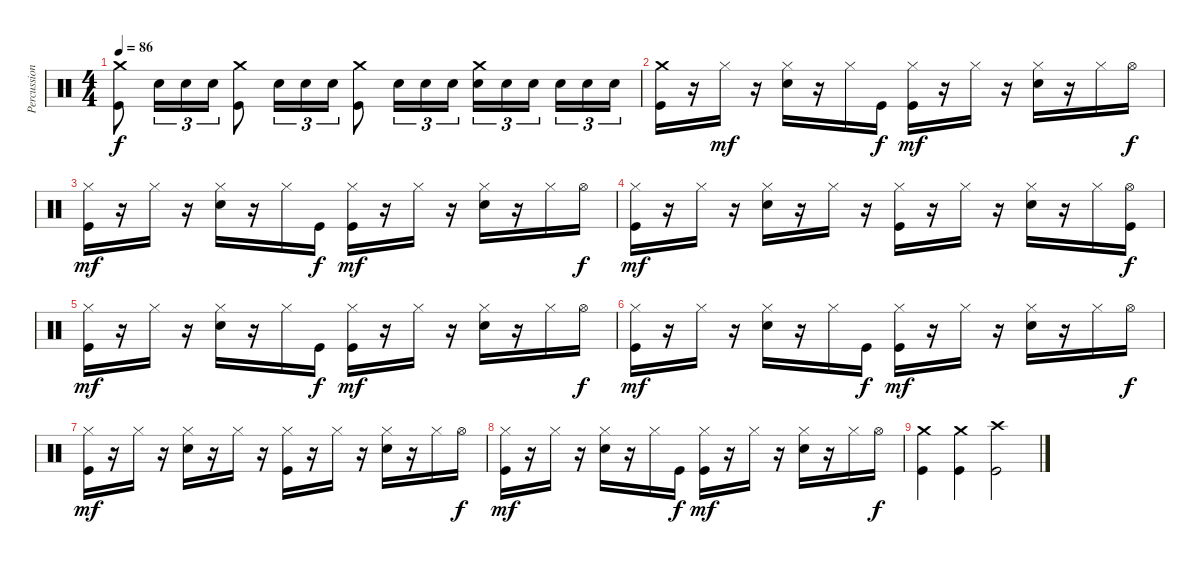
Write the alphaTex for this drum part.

\track ("Percussion" "Percussion") {instrument percussion}
\staff {score}
\articulation defaults
\ts (4 4)
\tempo 86
\clef neutral
\ks c
("Crash medium (hit)" "Kick (hit)").8{dy f} "Electric Snare (hit)".16{tu (3 2)} "Electric Snare (hit)".16{tu (3 2)} "Electric Snare (hit)".16{tu (3 2)} ("Crash medium (hit)" "Kick (hit)").8 "Electric Snare (hit)".16{tu (3 2)} "Electric Snare (hit)".16{tu (3 2)} "Electric Snare (hit)".16{tu (3 2)} ("Crash medium (hit)" "Kick (hit)").8 "Electric Snare (hit)".16{tu (3 2)} "Electric Snare (hit)".16{tu (3 2)} "Electric Snare (hit)".16{tu (3 2)} ("Crash medium (hit)" "Electric Snare (hit)").16{tu (3 2)} "Electric Snare (hit)".16{tu (3 2)} "Electric Snare (hit)".16{tu (3 2)} "Electric Snare (hit)".16{tu (3 2)} "Electric Snare (hit)".16{tu (3 2)} "Electric Snare (hit)".16{tu (3 2)} |
("Crash medium (hit)" "Kick (hit)").16 r.16 "Hi-Hat (closed)".16{dy mf} r.16 ("Hi-Hat (closed)" "Electric Snare (hit)").16 r.16 "Hi-Hat (closed)".16 "Kick (hit)".16{dy f} ("Hi-Hat (closed)" "Kick (hit)").16{dy mf} r.16 "Hi-Hat (closed)".16 r.16 ("Hi-Hat (closed)" "Electric Snare (hit)").16 r.16 "Hi-Hat (closed)".16 "Hi-Hat (open)".16{dy f} |
("Hi-Hat (closed)" "Kick (hit)").16{dy mf} r.16 "Hi-Hat (closed)".16 r.16 ("Hi-Hat (closed)" "Electric Snare (hit)").16 r.16 "Hi-Hat (closed)".16 "Kick (hit)".16{dy f} ("Hi-Hat (closed)" "Kick (hit)").16{dy mf} r.16 "Hi-Hat (closed)".16 r.16 ("Hi-Hat (closed)" "Electric Snare (hit)").16 r.16 "Hi-Hat (closed)".16 "Hi-Hat (open)".16{dy f} |
("Hi-Hat (closed)" "Kick (hit)").16{dy mf} r.16 "Hi-Hat (closed)".16 r.16 ("Hi-Hat (closed)" "Electric Snare (hit)").16 r.16 "Hi-Hat (closed)".16 r.16 ("Hi-Hat (closed)" "Kick (hit)").16 r.16 "Hi-Hat (closed)".16 r.16 ("Hi-Hat (closed)" "Electric Snare (hit)").16 r.16 "Hi-Hat (closed)".16 ("Hi-Hat (open)" "Kick (hit)").16{dy f} |
("Hi-Hat (closed)" "Kick (hit)").16{dy mf} r.16 "Hi-Hat (closed)".16 r.16 ("Hi-Hat (closed)" "Electric Snare (hit)").16 r.16 "Hi-Hat (closed)".16 "Kick (hit)".16{dy f} ("Hi-Hat (closed)" "Kick (hit)").16{dy mf} r.16 "Hi-Hat (closed)".16 r.16 ("Hi-Hat (closed)" "Electric Snare (hit)").16 r.16 "Hi-Hat (closed)".16 "Hi-Hat (open)".16{dy f} |
("Hi-Hat (closed)" "Kick (hit)").16{dy mf} r.16 "Hi-Hat (closed)".16 r.16 ("Hi-Hat (closed)" "Electric Snare (hit)").16 r.16 "Hi-Hat (closed)".16 "Kick (hit)".16{dy f} ("Hi-Hat (closed)" "Kick (hit)").16{dy mf} r.16 "Hi-Hat (closed)".16 r.16 ("Hi-Hat (closed)" "Electric Snare (hit)").16 r.16 "Hi-Hat (closed)".16 "Hi-Hat (open)".16{dy f} |
("Hi-Hat (closed)" "Kick (hit)").16{dy mf} r.16 "Hi-Hat (closed)".16 r.16 ("Hi-Hat (closed)" "Electric Snare (hit)").16 r.16 "Hi-Hat (closed)".16 r.16 ("Hi-Hat (closed)" "Kick (hit)").16 r.16 "Hi-Hat (closed)".16 r.16 ("Hi-Hat (closed)" "Electric Snare (hit)").16 r.16 "Hi-Hat (closed)".16 "Hi-Hat (open)".16{dy f} |
("Hi-Hat (closed)" "Kick (hit)").16{dy mf} r.16 "Hi-Hat (closed)".16 r.16 ("Hi-Hat (closed)" "Electric Snare (hit)").16 r.16 "Hi-Hat (closed)".16 "Kick (hit)".16{dy f} ("Hi-Hat (closed)" "Kick (hit)").16{dy mf} r.16 "Hi-Hat (closed)".16 r.16 ("Hi-Hat (closed)" "Electric Snare (hit)").16 r.16 "Hi-Hat (closed)".16 "Hi-Hat (open)".16{dy f} |
("Crash medium (hit)" "Kick (hit)").4 ("Crash medium (hit)" "Kick (hit)").4 ("Crash high (hit)" "Kick (hit)").2
